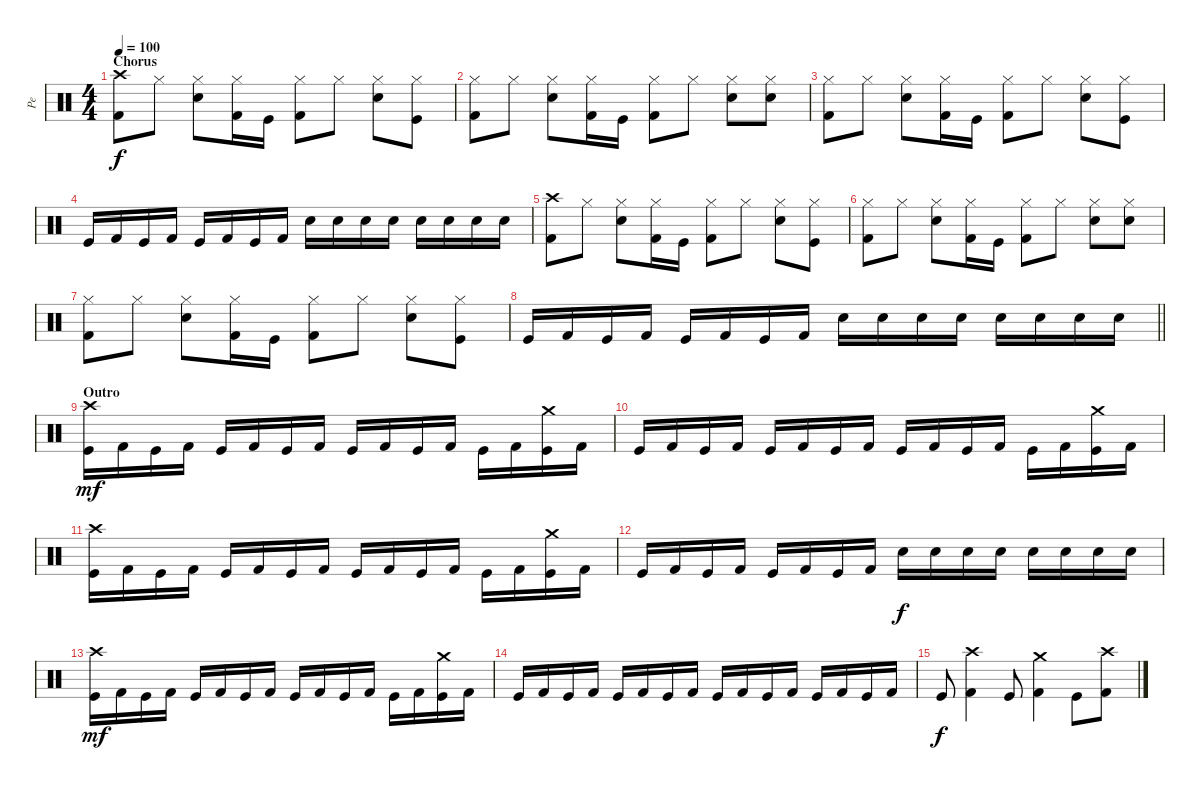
\track ("Pe" "Pe") {instrument percussion}
\staff {score}
\articulation defaults
\ts (4 4)
\section ("" "Chorus")
\tempo 100
\clef neutral
\ks c
("Kick (hit) 2" "Crash high (hit)").8{dy f} "Hi-Hat (closed)".8 ("Electric Snare (hit)" "Hi-Hat (closed)").8 ("Kick (hit) 2" "Hi-Hat (closed)").16 "Kick (hit)".16 ("Kick (hit) 2" "Hi-Hat (closed)").8 "Hi-Hat (closed)".8 ("Electric Snare (hit)" "Hi-Hat (closed)").8 ("Kick (hit)" "Hi-Hat (closed)").8 |
("Kick (hit) 2" "Hi-Hat (closed)").8 "Hi-Hat (closed)".8 ("Electric Snare (hit)" "Hi-Hat (closed)").8 ("Kick (hit) 2" "Hi-Hat (closed)").16 "Kick (hit)".16 ("Kick (hit) 2" "Hi-Hat (closed)").8 "Hi-Hat (closed)".8 ("Electric Snare (hit)" "Hi-Hat (closed)").8 ("Electric Snare (hit)" "Hi-Hat (closed)").8 |
("Kick (hit) 2" "Hi-Hat (closed)").8 "Hi-Hat (closed)".8 ("Electric Snare (hit)" "Hi-Hat (closed)").8 ("Kick (hit) 2" "Hi-Hat (closed)").16 "Kick (hit)".16 ("Kick (hit) 2" "Hi-Hat (closed)").8 "Hi-Hat (closed)".8 ("Electric Snare (hit)" "Hi-Hat (closed)").8 ("Kick (hit)" "Hi-Hat (closed)").8 |
"Kick (hit)".16 "Kick (hit) 2".16 "Kick (hit)".16 "Kick (hit) 2".16 "Kick (hit)".16 "Kick (hit) 2".16 "Kick (hit)".16 "Kick (hit) 2".16 "Electric Snare (hit)".16 "Electric Snare (hit)".16 "Electric Snare (hit)".16 "Electric Snare (hit)".16 "Electric Snare (hit)".16 "Electric Snare (hit)".16 "Electric Snare (hit)".16 "Electric Snare (hit)".16 |
("Kick (hit) 2" "Crash high (hit)").8 "Hi-Hat (closed)".8 ("Electric Snare (hit)" "Hi-Hat (closed)").8 ("Kick (hit) 2" "Hi-Hat (closed)").16 "Kick (hit)".16 ("Kick (hit) 2" "Hi-Hat (closed)").8 "Hi-Hat (closed)".8 ("Electric Snare (hit)" "Hi-Hat (closed)").8 ("Kick (hit)" "Hi-Hat (closed)").8 |
("Kick (hit) 2" "Hi-Hat (closed)").8 "Hi-Hat (closed)".8 ("Electric Snare (hit)" "Hi-Hat (closed)").8 ("Kick (hit) 2" "Hi-Hat (closed)").16 "Kick (hit)".16 ("Kick (hit) 2" "Hi-Hat (closed)").8 "Hi-Hat (closed)".8 ("Electric Snare (hit)" "Hi-Hat (closed)").8 ("Electric Snare (hit)" "Hi-Hat (closed)").8 |
("Kick (hit) 2" "Hi-Hat (closed)").8 "Hi-Hat (closed)".8 ("Electric Snare (hit)" "Hi-Hat (closed)").8 ("Kick (hit) 2" "Hi-Hat (closed)").16 "Kick (hit)".16 ("Kick (hit) 2" "Hi-Hat (closed)").8 "Hi-Hat (closed)".8 ("Electric Snare (hit)" "Hi-Hat (closed)").8 ("Kick (hit)" "Hi-Hat (closed)").8 |
\barLineRight lightlight "Kick (hit)".16 "Kick (hit) 2".16 "Kick (hit)".16 "Kick (hit) 2".16 "Kick (hit)".16 "Kick (hit) 2".16 "Kick (hit)".16 "Kick (hit) 2".16 "Electric Snare (hit)".16 "Electric Snare (hit)".16 "Electric Snare (hit)".16 "Electric Snare (hit)".16 "Electric Snare (hit)".16 "Electric Snare (hit)".16 "Electric Snare (hit)".16 "Electric Snare (hit)".16
|
\section ("" "Outro")
("Kick (hit)" "Crash high (hit)").16{dy mf} "Kick (hit) 2".16 "Kick (hit)".16 "Kick (hit) 2".16 "Kick (hit)".16 "Kick (hit) 2".16 "Kick (hit)".16 "Kick (hit) 2".16 "Kick (hit)".16 "Kick (hit) 2".16 "Kick (hit)".16 "Kick (hit) 2".16 "Kick (hit)".16 "Kick (hit) 2".16 ("Kick (hit)" "Crash medium (hit)").16 "Kick (hit) 2".16 |
"Kick (hit)".16 "Kick (hit) 2".16 "Kick (hit)".16 "Kick (hit) 2".16 "Kick (hit)".16 "Kick (hit) 2".16 "Kick (hit)".16 "Kick (hit) 2".16 "Kick (hit)".16 "Kick (hit) 2".16 "Kick (hit)".16 "Kick (hit) 2".16 "Kick (hit)".16 "Kick (hit) 2".16 ("Kick (hit)" "Crash medium (hit)").16 "Kick (hit) 2".16 |
("Kick (hit)" "Crash high (hit)").16 "Kick (hit) 2".16 "Kick (hit)".16 "Kick (hit) 2".16 "Kick (hit)".16 "Kick (hit) 2".16 "Kick (hit)".16 "Kick (hit) 2".16 "Kick (hit)".16 "Kick (hit) 2".16 "Kick (hit)".16 "Kick (hit) 2".16 "Kick (hit)".16 "Kick (hit) 2".16 ("Kick (hit)" "Crash medium (hit)").16 "Kick (hit) 2".16 |
"Kick (hit)".16 "Kick (hit) 2".16 "Kick (hit)".16 "Kick (hit) 2".16 "Kick (hit)".16 "Kick (hit) 2".16 "Kick (hit)".16 "Kick (hit) 2".16 "Electric Snare (hit)".16{dy f} "Electric Snare (hit)".16 "Electric Snare (hit)".16 "Electric Snare (hit)".16 "Electric Snare (hit)".16 "Electric Snare (hit)".16 "Electric Snare (hit)".16 "Electric Snare (hit)".16 |
("Kick (hit)" "Crash high (hit)").16{dy mf} "Kick (hit) 2".16 "Kick (hit)".16 "Kick (hit) 2".16 "Kick (hit)".16 "Kick (hit) 2".16 "Kick (hit)".16 "Kick (hit) 2".16 "Kick (hit)".16 "Kick (hit) 2".16 "Kick (hit)".16 "Kick (hit) 2".16 "Kick (hit)".16 "Kick (hit) 2".16 ("Kick (hit)" "Crash medium (hit)").16 "Kick (hit) 2".16 |
"Kick (hit)".16 "Kick (hit) 2".16 "Kick (hit)".16 "Kick (hit) 2".16 "Kick (hit)".16 "Kick (hit) 2".16 "Kick (hit)".16 "Kick (hit) 2".16 "Kick (hit)".16 "Kick (hit) 2".16 "Kick (hit)".16 "Kick (hit) 2".16 "Kick (hit)".16 "Kick (hit) 2".16 "Kick (hit)".16 "Kick (hit) 2".16 |
"Kick (hit)".8{dy f} ("Kick (hit) 2" "Crash high (hit)").4 "Kick (hit)".8 ("Kick (hit) 2" "Crash medium (hit)").4 "Kick (hit)".8 ("Kick (hit) 2" "Crash high (hit)").8
